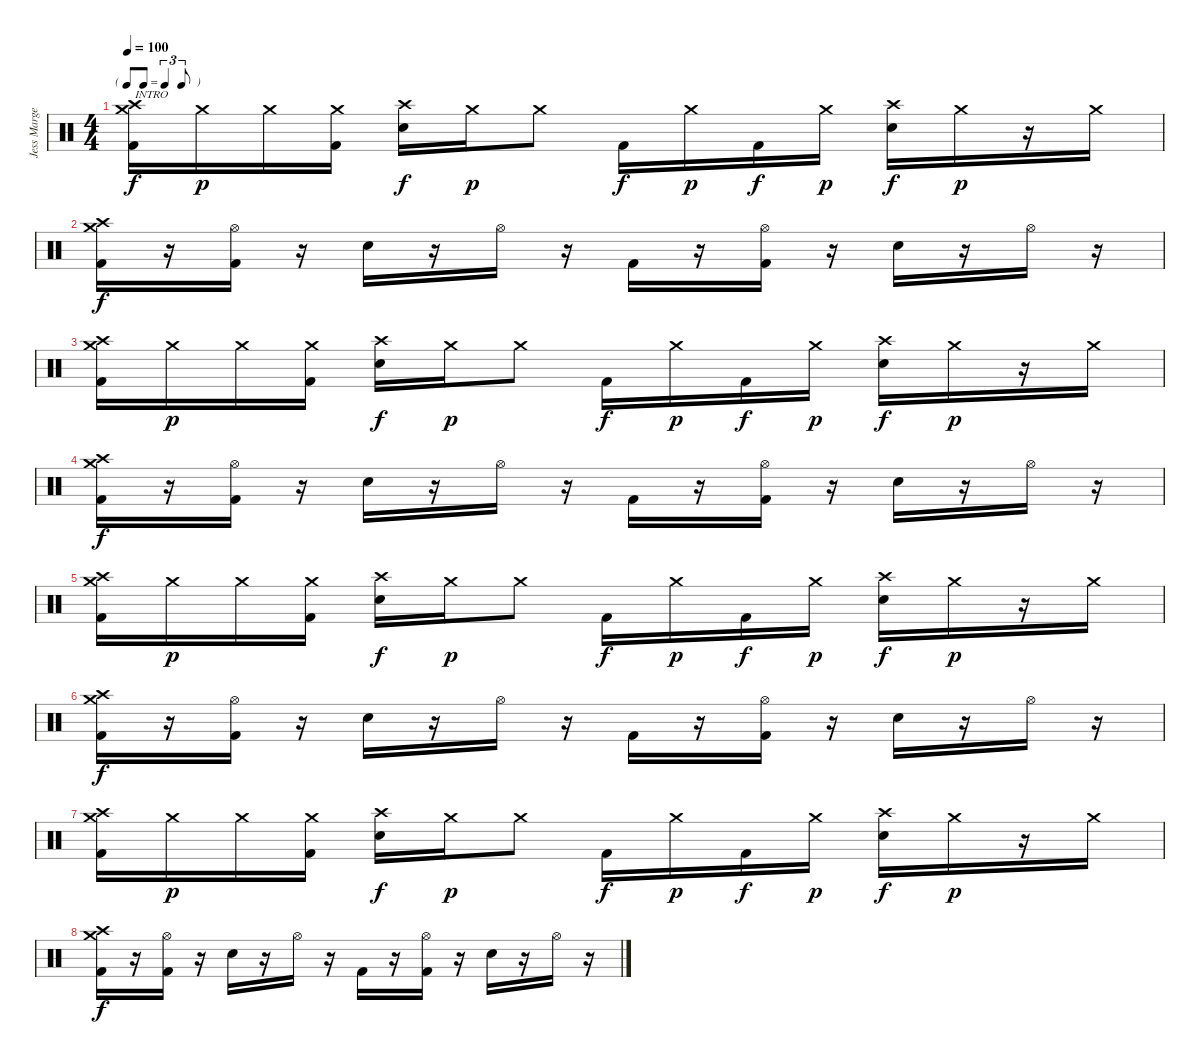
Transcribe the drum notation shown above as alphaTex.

\track ("Jess Margera" "Jess Marge") {instrument percussion}
\staff {score}
\articulation defaults
\ts (4 4)
\tf triplet8th
\tempo 100
\clef neutral
\ks c
("Crash medium (hit)" "Crash high (hit)" "Kick (hit) 2").16{txt "INTRO" dy f} "Crash medium (hit)".16{dy p} "Crash medium (hit)".16 ("Crash medium (hit)" "Kick (hit) 2").16 ("Crash high (hit)" "Electric Snare (hit)").16{dy f} "Crash medium (hit)".16{dy p} "Crash medium (hit)".8 "Kick (hit) 2".16{dy f} "Crash medium (hit)".16{dy p} "Kick (hit) 2".16{dy f} "Crash medium (hit)".16{dy p} ("Crash high (hit)" "Electric Snare (hit)").16{dy f} "Crash medium (hit)".16{dy p} r.16 "Crash medium (hit)".16 |
("Crash high (hit)" "Crash medium (hit)" "Kick (hit) 2").16{dy f} r.16 ("Hi-Hat (open)" "Kick (hit) 2").16 r.16 "Electric Snare (hit)".16 r.16 "Hi-Hat (open)".16 r.16 "Kick (hit) 2".16 r.16 ("Hi-Hat (open)" "Kick (hit) 2").16 r.16 "Electric Snare (hit)".16 r.16 "Hi-Hat (open)".16 r.16 |
("Crash medium (hit)" "Crash high (hit)" "Kick (hit) 2").16 "Crash medium (hit)".16{dy p} "Crash medium (hit)".16 ("Crash medium (hit)" "Kick (hit) 2").16 ("Crash high (hit)" "Electric Snare (hit)").16{dy f} "Crash medium (hit)".16{dy p} "Crash medium (hit)".8 "Kick (hit) 2".16{dy f} "Crash medium (hit)".16{dy p} "Kick (hit) 2".16{dy f} "Crash medium (hit)".16{dy p} ("Crash high (hit)" "Electric Snare (hit)").16{dy f} "Crash medium (hit)".16{dy p} r.16 "Crash medium (hit)".16 |
("Crash high (hit)" "Crash medium (hit)" "Kick (hit) 2").16{dy f} r.16 ("Hi-Hat (open)" "Kick (hit) 2").16 r.16 "Electric Snare (hit)".16 r.16 "Hi-Hat (open)".16 r.16 "Kick (hit) 2".16 r.16 ("Hi-Hat (open)" "Kick (hit) 2").16 r.16 "Electric Snare (hit)".16 r.16 "Hi-Hat (open)".16 r.16 |
("Crash medium (hit)" "Crash high (hit)" "Kick (hit) 2").16 "Crash medium (hit)".16{dy p} "Crash medium (hit)".16 ("Crash medium (hit)" "Kick (hit) 2").16 ("Crash high (hit)" "Electric Snare (hit)").16{dy f} "Crash medium (hit)".16{dy p} "Crash medium (hit)".8 "Kick (hit) 2".16{dy f} "Crash medium (hit)".16{dy p} "Kick (hit) 2".16{dy f} "Crash medium (hit)".16{dy p} ("Crash high (hit)" "Electric Snare (hit)").16{dy f} "Crash medium (hit)".16{dy p} r.16 "Crash medium (hit)".16 |
("Crash high (hit)" "Crash medium (hit)" "Kick (hit) 2").16{dy f} r.16 ("Hi-Hat (open)" "Kick (hit) 2").16 r.16 "Electric Snare (hit)".16 r.16 "Hi-Hat (open)".16 r.16 "Kick (hit) 2".16 r.16 ("Hi-Hat (open)" "Kick (hit) 2").16 r.16 "Electric Snare (hit)".16 r.16 "Hi-Hat (open)".16 r.16 |
("Crash medium (hit)" "Crash high (hit)" "Kick (hit) 2").16 "Crash medium (hit)".16{dy p} "Crash medium (hit)".16 ("Crash medium (hit)" "Kick (hit) 2").16 ("Crash high (hit)" "Electric Snare (hit)").16{dy f} "Crash medium (hit)".16{dy p} "Crash medium (hit)".8 "Kick (hit) 2".16{dy f} "Crash medium (hit)".16{dy p} "Kick (hit) 2".16{dy f} "Crash medium (hit)".16{dy p} ("Crash high (hit)" "Electric Snare (hit)").16{dy f} "Crash medium (hit)".16{dy p} r.16 "Crash medium (hit)".16 |
("Crash high (hit)" "Crash medium (hit)" "Kick (hit) 2").16{dy f} r.16 ("Hi-Hat (open)" "Kick (hit) 2").16 r.16 "Electric Snare (hit)".16 r.16 "Hi-Hat (open)".16 r.16 "Kick (hit) 2".16 r.16 ("Hi-Hat (open)" "Kick (hit) 2").16 r.16 "Electric Snare (hit)".16 r.16 "Hi-Hat (open)".16 r.16
